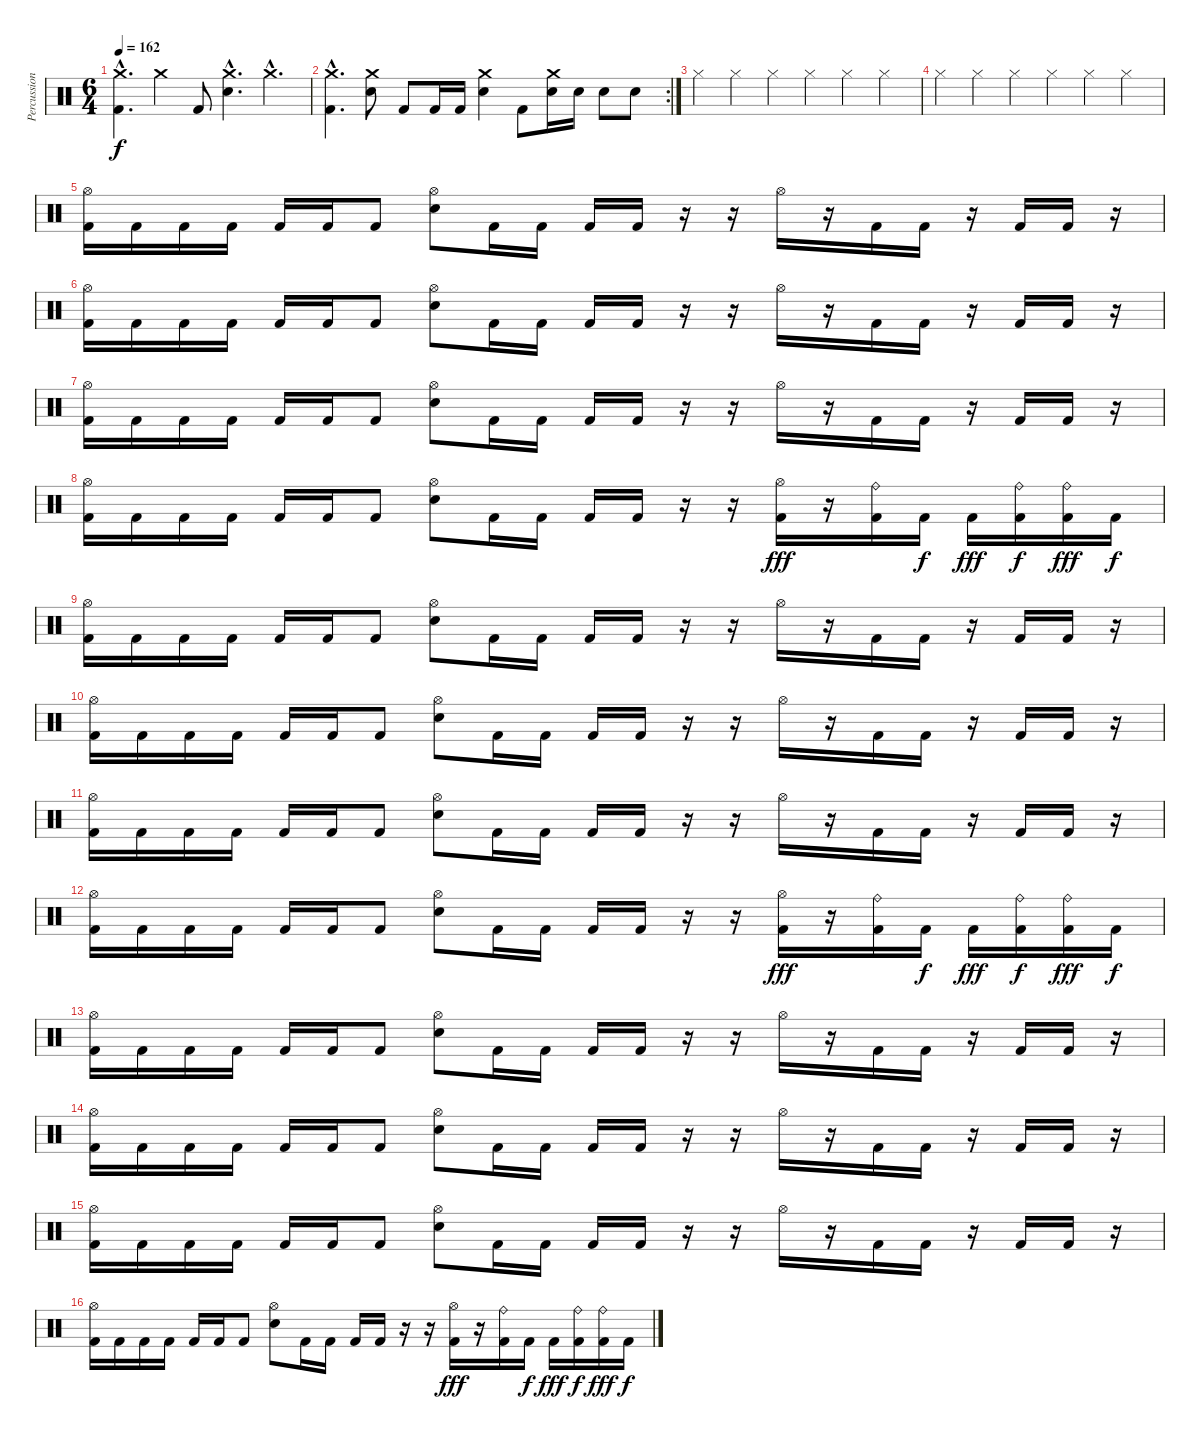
\track ("Percussion" "Percussion") {instrument percussion}
\staff {score}
\articulation defaults
\ts (6 4)
\tempo 162
\clef neutral
\ks c
("Crash medium (hit)"{hac} "Kick (hit) 2"{hac}).4{d dy f} "Crash medium (hit)".4 "Kick (hit) 2".8 ("Crash medium (hit)"{hac} "Electric Snare (hit)"{hac}).4{d} "Crash medium (hit)"{hac}.4{d} |
\rc 2
("Crash medium (hit)"{hac} "Kick (hit) 2"{hac}).4{d} ("Crash medium (hit)" "Electric Snare (hit)").8 "Kick (hit) 2".8 "Kick (hit) 2".16 "Kick (hit) 2".16 ("Crash medium (hit)" "Electric Snare (hit)").4 "Kick (hit) 2".8 ("Crash medium (hit)" "Electric Snare (hit)").16 "Electric Snare (hit)".16 "Electric Snare (hit)".8 "Electric Snare (hit)".8 |
"Hi-Hat (closed)".4 "Hi-Hat (closed)".4 "Hi-Hat (closed)".4 "Hi-Hat (closed)".4 "Hi-Hat (closed)".4 "Hi-Hat (closed)".4 |
"Hi-Hat (closed)".4 "Hi-Hat (closed)".4 "Hi-Hat (closed)".4 "Hi-Hat (closed)".4 "Hi-Hat (closed)".4 "Hi-Hat (closed)".4 |
("Hi-Hat (open)" "Kick (hit) 2").16 "Kick (hit) 2".16 "Kick (hit) 2".16 "Kick (hit) 2".16 "Kick (hit) 2".16 "Kick (hit) 2".16 "Kick (hit) 2".8 ("Hi-Hat (open)" "Electric Snare (hit)").8 "Kick (hit) 2".16 "Kick (hit) 2".16 "Kick (hit) 2".16 "Kick (hit) 2".16 r.16 r.16 "Hi-Hat (open)".16 r.16 "Kick (hit) 2".16 "Kick (hit) 2".16 r.16 "Kick (hit) 2".16 "Kick (hit) 2".16 r.16 |
("Hi-Hat (open)" "Kick (hit) 2").16 "Kick (hit) 2".16 "Kick (hit) 2".16 "Kick (hit) 2".16 "Kick (hit) 2".16 "Kick (hit) 2".16 "Kick (hit) 2".8 ("Hi-Hat (open)" "Electric Snare (hit)").8 "Kick (hit) 2".16 "Kick (hit) 2".16 "Kick (hit) 2".16 "Kick (hit) 2".16 r.16 r.16 "Hi-Hat (open)".16 r.16 "Kick (hit) 2".16 "Kick (hit) 2".16 r.16 "Kick (hit) 2".16 "Kick (hit) 2".16 r.16 |
("Hi-Hat (open)" "Kick (hit) 2").16 "Kick (hit) 2".16 "Kick (hit) 2".16 "Kick (hit) 2".16 "Kick (hit) 2".16 "Kick (hit) 2".16 "Kick (hit) 2".8 ("Hi-Hat (open)" "Electric Snare (hit)").8 "Kick (hit) 2".16 "Kick (hit) 2".16 "Kick (hit) 2".16 "Kick (hit) 2".16 r.16 r.16 "Hi-Hat (open)".16 r.16 "Kick (hit) 2".16 "Kick (hit) 2".16 r.16 "Kick (hit) 2".16 "Kick (hit) 2".16 r.16 |
("Hi-Hat (open)" "Kick (hit) 2").16 "Kick (hit) 2".16 "Kick (hit) 2".16 "Kick (hit) 2".16 "Kick (hit) 2".16 "Kick (hit) 2".16 "Kick (hit) 2".8 ("Hi-Hat (open)" "Electric Snare (hit)").8 "Kick (hit) 2".16 "Kick (hit) 2".16 "Kick (hit) 2".16 "Kick (hit) 2".16 r.16 r.16 ("Hi-Hat (open)" "Kick (hit) 2").16{dy fff} r.16 ("Ride (bell)" "Kick (hit) 2").16 "Kick (hit) 2".16{dy f} "Kick (hit) 2".16{dy fff} ("Ride (bell)" "Kick (hit) 2").16{dy f} ("Ride (bell)" "Kick (hit) 2").16{dy fff} "Kick (hit) 2".16{dy f} |
("Hi-Hat (open)" "Kick (hit) 2").16 "Kick (hit) 2".16 "Kick (hit) 2".16 "Kick (hit) 2".16 "Kick (hit) 2".16 "Kick (hit) 2".16 "Kick (hit) 2".8 ("Hi-Hat (open)" "Electric Snare (hit)").8 "Kick (hit) 2".16 "Kick (hit) 2".16 "Kick (hit) 2".16 "Kick (hit) 2".16 r.16 r.16 "Hi-Hat (open)".16 r.16 "Kick (hit) 2".16 "Kick (hit) 2".16 r.16 "Kick (hit) 2".16 "Kick (hit) 2".16 r.16 |
("Hi-Hat (open)" "Kick (hit) 2").16 "Kick (hit) 2".16 "Kick (hit) 2".16 "Kick (hit) 2".16 "Kick (hit) 2".16 "Kick (hit) 2".16 "Kick (hit) 2".8 ("Hi-Hat (open)" "Electric Snare (hit)").8 "Kick (hit) 2".16 "Kick (hit) 2".16 "Kick (hit) 2".16 "Kick (hit) 2".16 r.16 r.16 "Hi-Hat (open)".16 r.16 "Kick (hit) 2".16 "Kick (hit) 2".16 r.16 "Kick (hit) 2".16 "Kick (hit) 2".16 r.16 |
("Hi-Hat (open)" "Kick (hit) 2").16 "Kick (hit) 2".16 "Kick (hit) 2".16 "Kick (hit) 2".16 "Kick (hit) 2".16 "Kick (hit) 2".16 "Kick (hit) 2".8 ("Hi-Hat (open)" "Electric Snare (hit)").8 "Kick (hit) 2".16 "Kick (hit) 2".16 "Kick (hit) 2".16 "Kick (hit) 2".16 r.16 r.16 "Hi-Hat (open)".16 r.16 "Kick (hit) 2".16 "Kick (hit) 2".16 r.16 "Kick (hit) 2".16 "Kick (hit) 2".16 r.16 |
("Hi-Hat (open)" "Kick (hit) 2").16 "Kick (hit) 2".16 "Kick (hit) 2".16 "Kick (hit) 2".16 "Kick (hit) 2".16 "Kick (hit) 2".16 "Kick (hit) 2".8 ("Hi-Hat (open)" "Electric Snare (hit)").8 "Kick (hit) 2".16 "Kick (hit) 2".16 "Kick (hit) 2".16 "Kick (hit) 2".16 r.16 r.16 ("Hi-Hat (open)" "Kick (hit) 2").16{dy fff} r.16 ("Ride (bell)" "Kick (hit) 2").16 "Kick (hit) 2".16{dy f} "Kick (hit) 2".16{dy fff} ("Ride (bell)" "Kick (hit) 2").16{dy f} ("Ride (bell)" "Kick (hit) 2").16{dy fff} "Kick (hit) 2".16{dy f} |
("Hi-Hat (open)" "Kick (hit) 2").16 "Kick (hit) 2".16 "Kick (hit) 2".16 "Kick (hit) 2".16 "Kick (hit) 2".16 "Kick (hit) 2".16 "Kick (hit) 2".8 ("Hi-Hat (open)" "Electric Snare (hit)").8 "Kick (hit) 2".16 "Kick (hit) 2".16 "Kick (hit) 2".16 "Kick (hit) 2".16 r.16 r.16 "Hi-Hat (open)".16 r.16 "Kick (hit) 2".16 "Kick (hit) 2".16 r.16 "Kick (hit) 2".16 "Kick (hit) 2".16 r.16 |
("Hi-Hat (open)" "Kick (hit) 2").16 "Kick (hit) 2".16 "Kick (hit) 2".16 "Kick (hit) 2".16 "Kick (hit) 2".16 "Kick (hit) 2".16 "Kick (hit) 2".8 ("Hi-Hat (open)" "Electric Snare (hit)").8 "Kick (hit) 2".16 "Kick (hit) 2".16 "Kick (hit) 2".16 "Kick (hit) 2".16 r.16 r.16 "Hi-Hat (open)".16 r.16 "Kick (hit) 2".16 "Kick (hit) 2".16 r.16 "Kick (hit) 2".16 "Kick (hit) 2".16 r.16 |
("Hi-Hat (open)" "Kick (hit) 2").16 "Kick (hit) 2".16 "Kick (hit) 2".16 "Kick (hit) 2".16 "Kick (hit) 2".16 "Kick (hit) 2".16 "Kick (hit) 2".8 ("Hi-Hat (open)" "Electric Snare (hit)").8 "Kick (hit) 2".16 "Kick (hit) 2".16 "Kick (hit) 2".16 "Kick (hit) 2".16 r.16 r.16 "Hi-Hat (open)".16 r.16 "Kick (hit) 2".16 "Kick (hit) 2".16 r.16 "Kick (hit) 2".16 "Kick (hit) 2".16 r.16 |
("Hi-Hat (open)" "Kick (hit) 2").16 "Kick (hit) 2".16 "Kick (hit) 2".16 "Kick (hit) 2".16 "Kick (hit) 2".16 "Kick (hit) 2".16 "Kick (hit) 2".8 ("Hi-Hat (open)" "Electric Snare (hit)").8 "Kick (hit) 2".16 "Kick (hit) 2".16 "Kick (hit) 2".16 "Kick (hit) 2".16 r.16 r.16 ("Hi-Hat (open)" "Kick (hit) 2").16{dy fff} r.16 ("Ride (bell)" "Kick (hit) 2").16 "Kick (hit) 2".16{dy f} "Kick (hit) 2".16{dy fff} ("Ride (bell)" "Kick (hit) 2").16{dy f} ("Ride (bell)" "Kick (hit) 2").16{dy fff} "Kick (hit) 2".16{dy f}
